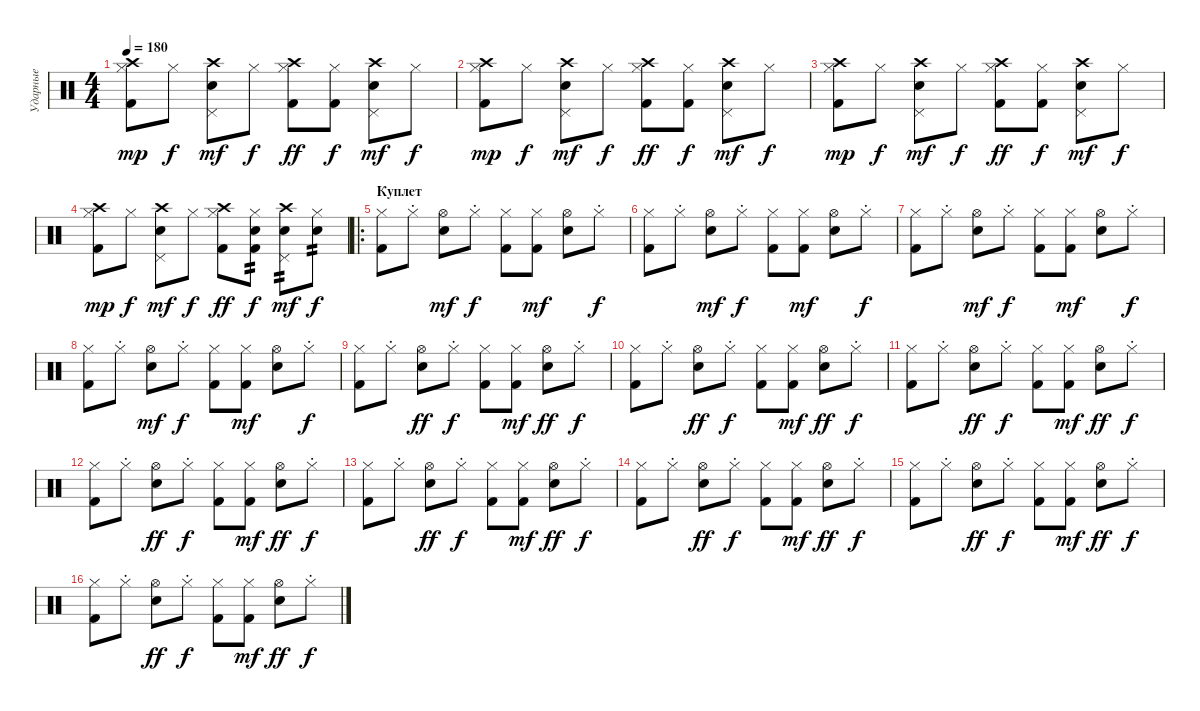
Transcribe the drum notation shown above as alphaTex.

\track ("Ударные" "Ударные") {instrument percussion}
\staff {score}
\articulation defaults
\ts (4 4)
\tempo 180
\clef neutral
\ks c
("Crash high (hit)" "Hi-Hat (closed)" "Kick (hit) 2").8{dy mp} "Hi-Hat (closed)".8{dy f} ("Crash high (hit)" "Snare (hit) 2" "Pedal Hi-Hat (hit)").8{dy mf} "Hi-Hat (closed)".8{dy f} ("Crash high (hit)" "Kick (hit) 2" "Hi-Hat (closed)").8{dy ff} ("Hi-Hat (closed)" "Kick (hit) 2").8{dy f} ("Crash high (hit)" "Pedal Hi-Hat (hit)" "Snare (hit) 2").8{dy mf} "Hi-Hat (closed)".8{dy f} |
("Crash high (hit)" "Hi-Hat (closed)" "Kick (hit) 2").8{dy mp} "Hi-Hat (closed)".8{dy f} ("Crash high (hit)" "Snare (hit) 2" "Pedal Hi-Hat (hit)").8{dy mf} "Hi-Hat (closed)".8{dy f} ("Crash high (hit)" "Kick (hit) 2" "Hi-Hat (closed)").8{dy ff} ("Hi-Hat (closed)" "Kick (hit) 2").8{dy f} ("Crash high (hit)" "Pedal Hi-Hat (hit)" "Snare (hit) 2").8{dy mf} "Hi-Hat (closed)".8{dy f} |
("Crash high (hit)" "Hi-Hat (closed)" "Kick (hit) 2").8{dy mp} "Hi-Hat (closed)".8{dy f} ("Crash high (hit)" "Snare (hit) 2" "Pedal Hi-Hat (hit)").8{dy mf} "Hi-Hat (closed)".8{dy f} ("Crash high (hit)" "Kick (hit) 2" "Hi-Hat (closed)").8{dy ff} ("Hi-Hat (closed)" "Kick (hit) 2").8{dy f} ("Crash high (hit)" "Pedal Hi-Hat (hit)" "Snare (hit) 2").8{dy mf} "Hi-Hat (closed)".8{dy f} |
("Crash high (hit)" "Hi-Hat (closed)" "Kick (hit) 2").8{dy mp} "Hi-Hat (closed)".8{dy f} ("Crash high (hit)" "Snare (hit) 2" "Pedal Hi-Hat (hit)").8{dy mf} "Hi-Hat (closed)".8{dy f} ("Crash high (hit)" "Kick (hit) 2" "Hi-Hat (closed)").8{dy ff} ("Hi-Hat (closed)" "Kick (hit) 2" "Snare (hit) 2").8{tp 2 dy f} ("Crash high (hit)" "Pedal Hi-Hat (hit)" "Snare (hit) 2").8{tp 2 dy mf} ("Hi-Hat (closed)" "Snare (hit) 2").8{tp 2 dy f} |
\ro
\section ("" "Куплет")
("Hi-Hat (closed)" "Kick (hit) 2").8 "Hi-Hat (closed)"{st}.8 ("Hi-Hat (open)" "Snare (hit) 2").8{dy mf} "Hi-Hat (closed)"{st}.8{dy f} ("Hi-Hat (closed)" "Kick (hit) 2").8 ("Hi-Hat (closed)" "Kick (hit) 2").8{dy mf} ("Hi-Hat (open)" "Snare (hit) 2").8 "Hi-Hat (closed)"{st}.8{dy f} |
("Hi-Hat (closed)" "Kick (hit) 2").8 "Hi-Hat (closed)"{st}.8 ("Hi-Hat (open)" "Snare (hit) 2").8{dy mf} "Hi-Hat (closed)"{st}.8{dy f} ("Hi-Hat (closed)" "Kick (hit) 2").8 ("Hi-Hat (closed)" "Kick (hit) 2").8{dy mf} ("Hi-Hat (open)" "Snare (hit) 2").8 "Hi-Hat (closed)"{st}.8{dy f} |
("Hi-Hat (closed)" "Kick (hit) 2").8 "Hi-Hat (closed)"{st}.8 ("Hi-Hat (open)" "Snare (hit) 2").8{dy mf} "Hi-Hat (closed)"{st}.8{dy f} ("Hi-Hat (closed)" "Kick (hit) 2").8 ("Hi-Hat (closed)" "Kick (hit) 2").8{dy mf} ("Hi-Hat (open)" "Snare (hit) 2").8 "Hi-Hat (closed)"{st}.8{dy f} |
("Hi-Hat (closed)" "Kick (hit) 2").8 "Hi-Hat (closed)"{st}.8 ("Hi-Hat (open)" "Snare (hit) 2").8{dy mf} "Hi-Hat (closed)"{st}.8{dy f} ("Hi-Hat (closed)" "Kick (hit) 2").8 ("Hi-Hat (closed)" "Kick (hit) 2").8{dy mf} ("Hi-Hat (open)" "Snare (hit) 2").8 "Hi-Hat (closed)"{st}.8{dy f} |
("Hi-Hat (closed)" "Kick (hit) 2").8 "Hi-Hat (closed)"{st}.8 ("Hi-Hat (open)" "Snare (hit) 2").8{dy ff} "Hi-Hat (closed)"{st}.8{dy f} ("Hi-Hat (closed)" "Kick (hit) 2").8 ("Hi-Hat (closed)" "Kick (hit) 2").8{dy mf} ("Hi-Hat (open)" "Snare (hit) 2").8{dy ff} "Hi-Hat (closed)"{st}.8{dy f} |
("Hi-Hat (closed)" "Kick (hit) 2").8 "Hi-Hat (closed)"{st}.8 ("Hi-Hat (open)" "Snare (hit) 2").8{dy ff} "Hi-Hat (closed)"{st}.8{dy f} ("Hi-Hat (closed)" "Kick (hit) 2").8 ("Hi-Hat (closed)" "Kick (hit) 2").8{dy mf} ("Hi-Hat (open)" "Snare (hit) 2").8{dy ff} "Hi-Hat (closed)"{st}.8{dy f} |
("Hi-Hat (closed)" "Kick (hit) 2").8 "Hi-Hat (closed)"{st}.8 ("Hi-Hat (open)" "Snare (hit) 2").8{dy ff} "Hi-Hat (closed)"{st}.8{dy f} ("Hi-Hat (closed)" "Kick (hit) 2").8 ("Hi-Hat (closed)" "Kick (hit) 2").8{dy mf} ("Hi-Hat (open)" "Snare (hit) 2").8{dy ff} "Hi-Hat (closed)"{st}.8{dy f} |
("Hi-Hat (closed)" "Kick (hit) 2").8 "Hi-Hat (closed)"{st}.8 ("Hi-Hat (open)" "Snare (hit) 2").8{dy ff} "Hi-Hat (closed)"{st}.8{dy f} ("Hi-Hat (closed)" "Kick (hit) 2").8 ("Hi-Hat (closed)" "Kick (hit) 2").8{dy mf} ("Hi-Hat (open)" "Snare (hit) 2").8{dy ff} "Hi-Hat (closed)"{st}.8{dy f} |
("Hi-Hat (closed)" "Kick (hit) 2").8 "Hi-Hat (closed)"{st}.8 ("Hi-Hat (open)" "Snare (hit) 2").8{dy ff} "Hi-Hat (closed)"{st}.8{dy f} ("Hi-Hat (closed)" "Kick (hit) 2").8 ("Hi-Hat (closed)" "Kick (hit) 2").8{dy mf} ("Hi-Hat (open)" "Snare (hit) 2").8{dy ff} "Hi-Hat (closed)"{st}.8{dy f} |
("Hi-Hat (closed)" "Kick (hit) 2").8 "Hi-Hat (closed)"{st}.8 ("Hi-Hat (open)" "Snare (hit) 2").8{dy ff} "Hi-Hat (closed)"{st}.8{dy f} ("Hi-Hat (closed)" "Kick (hit) 2").8 ("Hi-Hat (closed)" "Kick (hit) 2").8{dy mf} ("Hi-Hat (open)" "Snare (hit) 2").8{dy ff} "Hi-Hat (closed)"{st}.8{dy f} |
("Hi-Hat (closed)" "Kick (hit) 2").8 "Hi-Hat (closed)"{st}.8 ("Hi-Hat (open)" "Snare (hit) 2").8{dy ff} "Hi-Hat (closed)"{st}.8{dy f} ("Hi-Hat (closed)" "Kick (hit) 2").8 ("Hi-Hat (closed)" "Kick (hit) 2").8{dy mf} ("Hi-Hat (open)" "Snare (hit) 2").8{dy ff} "Hi-Hat (closed)"{st}.8{dy f} |
("Hi-Hat (closed)" "Kick (hit) 2").8 "Hi-Hat (closed)"{st}.8 ("Hi-Hat (open)" "Snare (hit) 2").8{dy ff} "Hi-Hat (closed)"{st}.8{dy f} ("Hi-Hat (closed)" "Kick (hit) 2").8 ("Hi-Hat (closed)" "Kick (hit) 2").8{dy mf} ("Hi-Hat (open)" "Snare (hit) 2").8{dy ff} "Hi-Hat (closed)"{st}.8{dy f}
